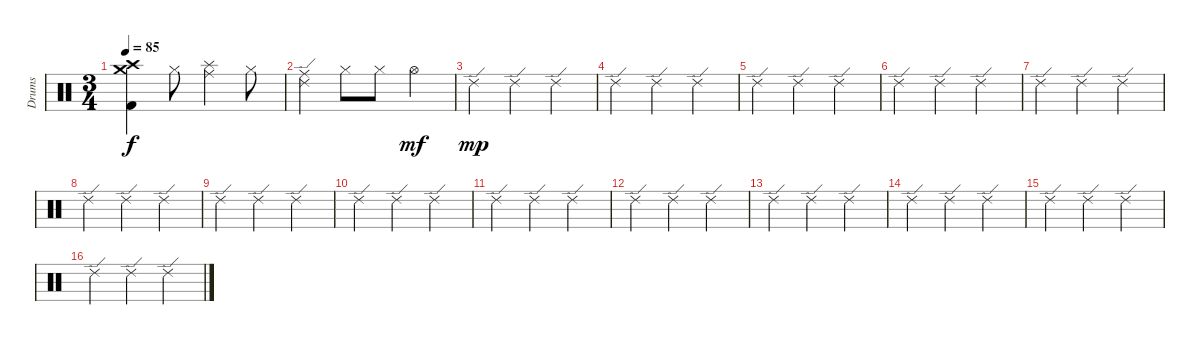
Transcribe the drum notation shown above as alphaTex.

\track ("Drums" "Drums") {instrument percussion}
\staff {score}
\articulation defaults
\ts (3 4)
\tempo 85
\clef neutral
\ks c
("Kick (hit) 2" "Crash high (hit)" "Crash medium (hit)").4{dy f} "Hi-Hat (closed)".8 ("Ride (middle)" "Splash (hit)").4 "Hi-Hat (closed)".8 |
("Ride (middle)" "Ride (edge) 2").4 "Hi-Hat (closed)".8 "Hi-Hat (closed)".8 "Hi-Hat (open)".4{dy mf} |
"Ride (edge) 2".4{dy mp} "Ride (edge) 2".4 "Ride (edge) 2".4 |
"Ride (edge) 2".4 "Ride (edge) 2".4 "Ride (edge) 2".4 |
"Ride (edge) 2".4 "Ride (edge) 2".4 "Ride (edge) 2".4 |
"Ride (edge) 2".4 "Ride (edge) 2".4 "Ride (edge) 2".4 |
"Ride (edge) 2".4 "Ride (edge) 2".4 "Ride (edge) 2".4 |
"Ride (edge) 2".4 "Ride (edge) 2".4 "Ride (edge) 2".4 |
"Ride (edge) 2".4 "Ride (edge) 2".4 "Ride (edge) 2".4 |
"Ride (edge) 2".4 "Ride (edge) 2".4 "Ride (edge) 2".4 |
"Ride (edge) 2".4 "Ride (edge) 2".4 "Ride (edge) 2".4 |
"Ride (edge) 2".4 "Ride (edge) 2".4 "Ride (edge) 2".4 |
"Ride (edge) 2".4 "Ride (edge) 2".4 "Ride (edge) 2".4 |
"Ride (edge) 2".4 "Ride (edge) 2".4 "Ride (edge) 2".4 |
"Ride (edge) 2".4 "Ride (edge) 2".4 "Ride (edge) 2".4 |
"Ride (edge) 2".4 "Ride (edge) 2".4 "Ride (edge) 2".4
